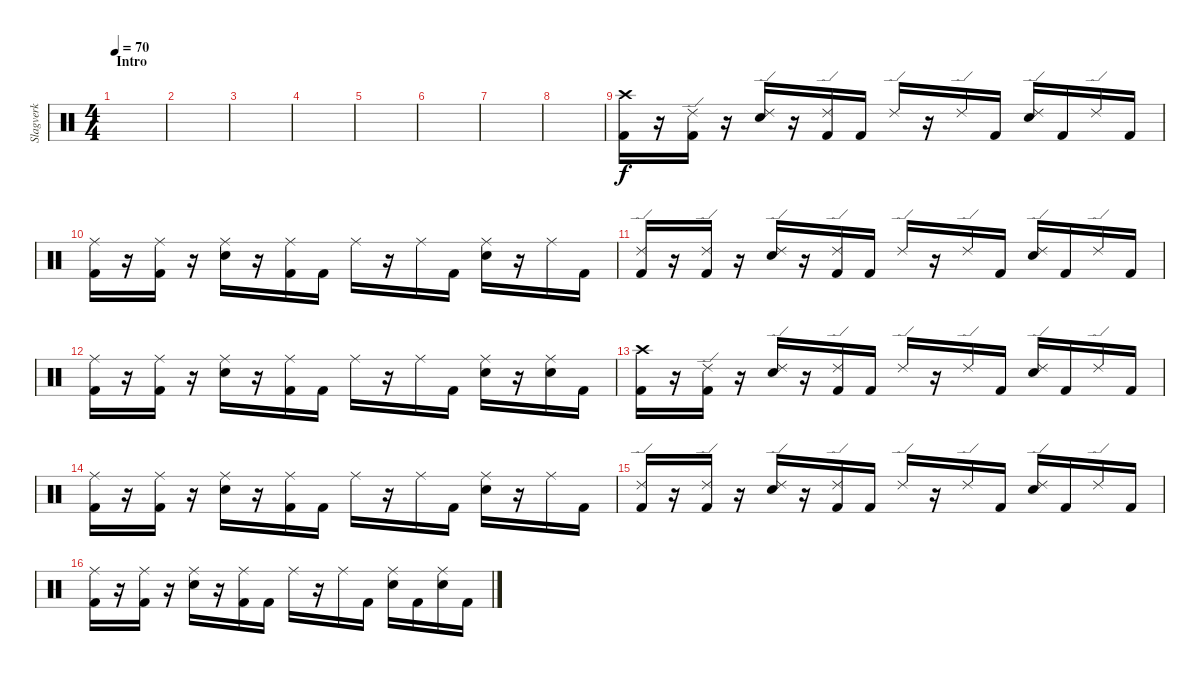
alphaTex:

\track ("Slagverk" "Slagverk") {instrument percussion}
\staff {score}
\articulation defaults
\ts (4 4)
\section ("" "Intro")
\tempo 70
\clef neutral
\ks c
|
|
|
|
|
|
|
|
("Crash high (hit)" "Kick (hit) 2").16 r.16 ("Ride (edge) 2" "Kick (hit) 2").16 r.16 ("Ride (edge) 2" "Electric Snare (hit)").16 r.16 ("Ride (edge) 2" "Kick (hit) 2").16 "Kick (hit) 2".16 "Ride (edge) 2".16 r.16 "Ride (edge) 2".16 "Kick (hit) 2".16 ("Ride (edge) 2" "Electric Snare (hit)").16 "Kick (hit) 2".16 "Ride (edge) 2".16 "Kick (hit) 2".16 |
("Ride (middle)" "Kick (hit) 2").16 r.16 ("Ride (middle)" "Kick (hit) 2").16 r.16 ("Ride (middle)" "Electric Snare (hit)").16 r.16 ("Ride (middle)" "Kick (hit) 2").16 "Kick (hit) 2".16 "Ride (middle)".16 r.16 "Ride (middle)".16 "Kick (hit) 2".16 ("Ride (middle)" "Electric Snare (hit)").16 r.16 "Ride (middle)".16 "Kick (hit) 2".16 |
("Ride (edge) 2" "Kick (hit) 2").16 r.16 ("Ride (edge) 2" "Kick (hit) 2").16 r.16 ("Ride (edge) 2" "Electric Snare (hit)").16 r.16 ("Ride (edge) 2" "Kick (hit) 2").16 "Kick (hit) 2".16 "Ride (edge) 2".16 r.16 "Ride (edge) 2".16 "Kick (hit) 2".16 ("Ride (edge) 2" "Electric Snare (hit)").16 "Kick (hit) 2".16 "Ride (edge) 2".16 "Kick (hit) 2".16 |
("Ride (middle)" "Kick (hit) 2").16 r.16 ("Ride (middle)" "Kick (hit) 2").16 r.16 ("Ride (middle)" "Electric Snare (hit)").16 r.16 ("Ride (middle)" "Kick (hit) 2").16 "Kick (hit) 2".16 "Ride (middle)".16 r.16 "Ride (middle)".16 "Kick (hit) 2".16 ("Ride (middle)" "Electric Snare (hit)").16 r.16 ("Ride (middle)" "Electric Snare (hit)").16 "Kick (hit) 2".16 |
("Crash high (hit)" "Kick (hit) 2").16 r.16 ("Ride (edge) 2" "Kick (hit) 2").16 r.16 ("Ride (edge) 2" "Electric Snare (hit)").16 r.16 ("Ride (edge) 2" "Kick (hit) 2").16 "Kick (hit) 2".16 "Ride (edge) 2".16 r.16 "Ride (edge) 2".16 "Kick (hit) 2".16 ("Ride (edge) 2" "Electric Snare (hit)").16 "Kick (hit) 2".16 "Ride (edge) 2".16 "Kick (hit) 2".16 |
("Ride (middle)" "Kick (hit) 2").16 r.16 ("Ride (middle)" "Kick (hit) 2").16 r.16 ("Ride (middle)" "Electric Snare (hit)").16 r.16 ("Ride (middle)" "Kick (hit) 2").16 "Kick (hit) 2".16 "Ride (middle)".16 r.16 "Ride (middle)".16 "Kick (hit) 2".16 ("Ride (middle)" "Electric Snare (hit)").16 r.16 "Ride (middle)".16 "Kick (hit) 2".16 |
("Ride (edge) 2" "Kick (hit) 2").16 r.16 ("Ride (edge) 2" "Kick (hit) 2").16 r.16 ("Ride (edge) 2" "Electric Snare (hit)").16 r.16 ("Ride (edge) 2" "Kick (hit) 2").16 "Kick (hit) 2".16 "Ride (edge) 2".16 r.16 "Ride (edge) 2".16 "Kick (hit) 2".16 ("Ride (edge) 2" "Electric Snare (hit)").16 "Kick (hit) 2".16 "Ride (edge) 2".16 "Kick (hit) 2".16 |
("Ride (middle)" "Kick (hit) 2").16 r.16 ("Ride (middle)" "Kick (hit) 2").16 r.16 ("Ride (middle)" "Electric Snare (hit)").16 r.16 ("Ride (middle)" "Kick (hit) 2").16 "Kick (hit) 2".16 "Ride (middle)".16 r.16 "Ride (middle)".16 "Kick (hit) 2".16 ("Ride (middle)" "Electric Snare (hit)").16 "Kick (hit) 2".16 ("Ride (middle)" "Electric Snare (hit)").16 "Kick (hit) 2".16
